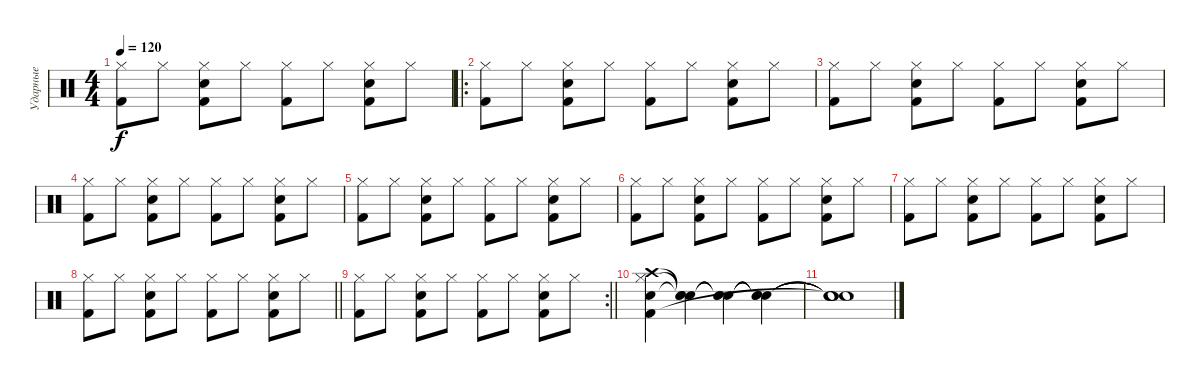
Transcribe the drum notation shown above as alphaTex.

\track ("Ударные" "Ударные") {instrument percussion}
\staff {score}
\articulation defaults
\ts (4 4)
\tempo 120
\clef neutral
\ks c
("Kick (hit) 2" "Hi-Hat (closed)").8{dy f} "Hi-Hat (closed)".8 ("Kick (hit) 2" "Snare (hit) 2" "Hi-Hat (closed)").8 "Hi-Hat (closed)".8 ("Kick (hit) 2" "Hi-Hat (closed)").8 "Hi-Hat (closed)".8 ("Kick (hit) 2" "Snare (hit) 2" "Hi-Hat (closed)").8 "Hi-Hat (closed)".8 |
\ro
("Kick (hit) 2" "Hi-Hat (closed)").8 "Hi-Hat (closed)".8 ("Kick (hit) 2" "Snare (hit) 2" "Hi-Hat (closed)").8 "Hi-Hat (closed)".8 ("Kick (hit) 2" "Hi-Hat (closed)").8 "Hi-Hat (closed)".8 ("Kick (hit) 2" "Snare (hit) 2" "Hi-Hat (closed)").8 "Hi-Hat (closed)".8 |
("Kick (hit) 2" "Hi-Hat (closed)").8 "Hi-Hat (closed)".8 ("Kick (hit) 2" "Snare (hit) 2" "Hi-Hat (closed)").8 "Hi-Hat (closed)".8 ("Kick (hit) 2" "Hi-Hat (closed)").8 "Hi-Hat (closed)".8 ("Kick (hit) 2" "Snare (hit) 2" "Hi-Hat (closed)").8 "Hi-Hat (closed)".8 |
("Kick (hit) 2" "Hi-Hat (closed)").8 "Hi-Hat (closed)".8 ("Kick (hit) 2" "Snare (hit) 2" "Hi-Hat (closed)").8 "Hi-Hat (closed)".8 ("Kick (hit) 2" "Hi-Hat (closed)").8 "Hi-Hat (closed)".8 ("Kick (hit) 2" "Snare (hit) 2" "Hi-Hat (closed)").8 "Hi-Hat (closed)".8 |
("Kick (hit) 2" "Hi-Hat (closed)").8 "Hi-Hat (closed)".8 ("Kick (hit) 2" "Snare (hit) 2" "Hi-Hat (closed)").8 "Hi-Hat (closed)".8 ("Kick (hit) 2" "Hi-Hat (closed)").8 "Hi-Hat (closed)".8 ("Kick (hit) 2" "Snare (hit) 2" "Hi-Hat (closed)").8 "Hi-Hat (closed)".8 |
("Kick (hit) 2" "Hi-Hat (closed)").8 "Hi-Hat (closed)".8 ("Kick (hit) 2" "Snare (hit) 2" "Hi-Hat (closed)").8 "Hi-Hat (closed)".8 ("Kick (hit) 2" "Hi-Hat (closed)").8 "Hi-Hat (closed)".8 ("Kick (hit) 2" "Snare (hit) 2" "Hi-Hat (closed)").8 "Hi-Hat (closed)".8 |
("Kick (hit) 2" "Hi-Hat (closed)").8 "Hi-Hat (closed)".8 ("Kick (hit) 2" "Snare (hit) 2" "Hi-Hat (closed)").8 "Hi-Hat (closed)".8 ("Kick (hit) 2" "Hi-Hat (closed)").8 "Hi-Hat (closed)".8 ("Kick (hit) 2" "Snare (hit) 2" "Hi-Hat (closed)").8 "Hi-Hat (closed)".8 |
\barLineRight lightlight
("Kick (hit) 2" "Hi-Hat (closed)").8 "Hi-Hat (closed)".8 ("Kick (hit) 2" "Snare (hit) 2" "Hi-Hat (closed)").8 "Hi-Hat (closed)".8 ("Kick (hit) 2" "Hi-Hat (closed)").8 "Hi-Hat (closed)".8 ("Kick (hit) 2" "Snare (hit) 2" "Hi-Hat (closed)").8 "Hi-Hat (closed)".8 |
\rc 2
\barLineRight lightlight
("Kick (hit) 2" "Hi-Hat (closed)").8 "Hi-Hat (closed)".8 ("Kick (hit) 2" "Snare (hit) 2" "Hi-Hat (closed)").8 "Hi-Hat (closed)".8 ("Kick (hit) 2" "Hi-Hat (closed)").8 "Hi-Hat (closed)".8 ("Kick (hit) 2" "Snare (hit) 2" "Hi-Hat (closed)").8 "Hi-Hat (closed)".8 |
("Crash high (hit)" "Snare (hit) 2" "Hi-Hat (closed)" "Kick (hit) 2").4 ("Snare (hit)"{t} "Snare (hit)"{t} "Snare (hit)"{t}).4 ("Snare (hit)"{t} "Snare (hit)"{t} "Snare (hit)"{t}).4 ("Snare (hit)"{t} "Snare (hit)"{t} "Snare (hit)"{t}).4 |
("Snare (hit)"{t} "Snare (hit)"{t} "Snare (hit)"{t} "Snare (hit)"{t}).1
